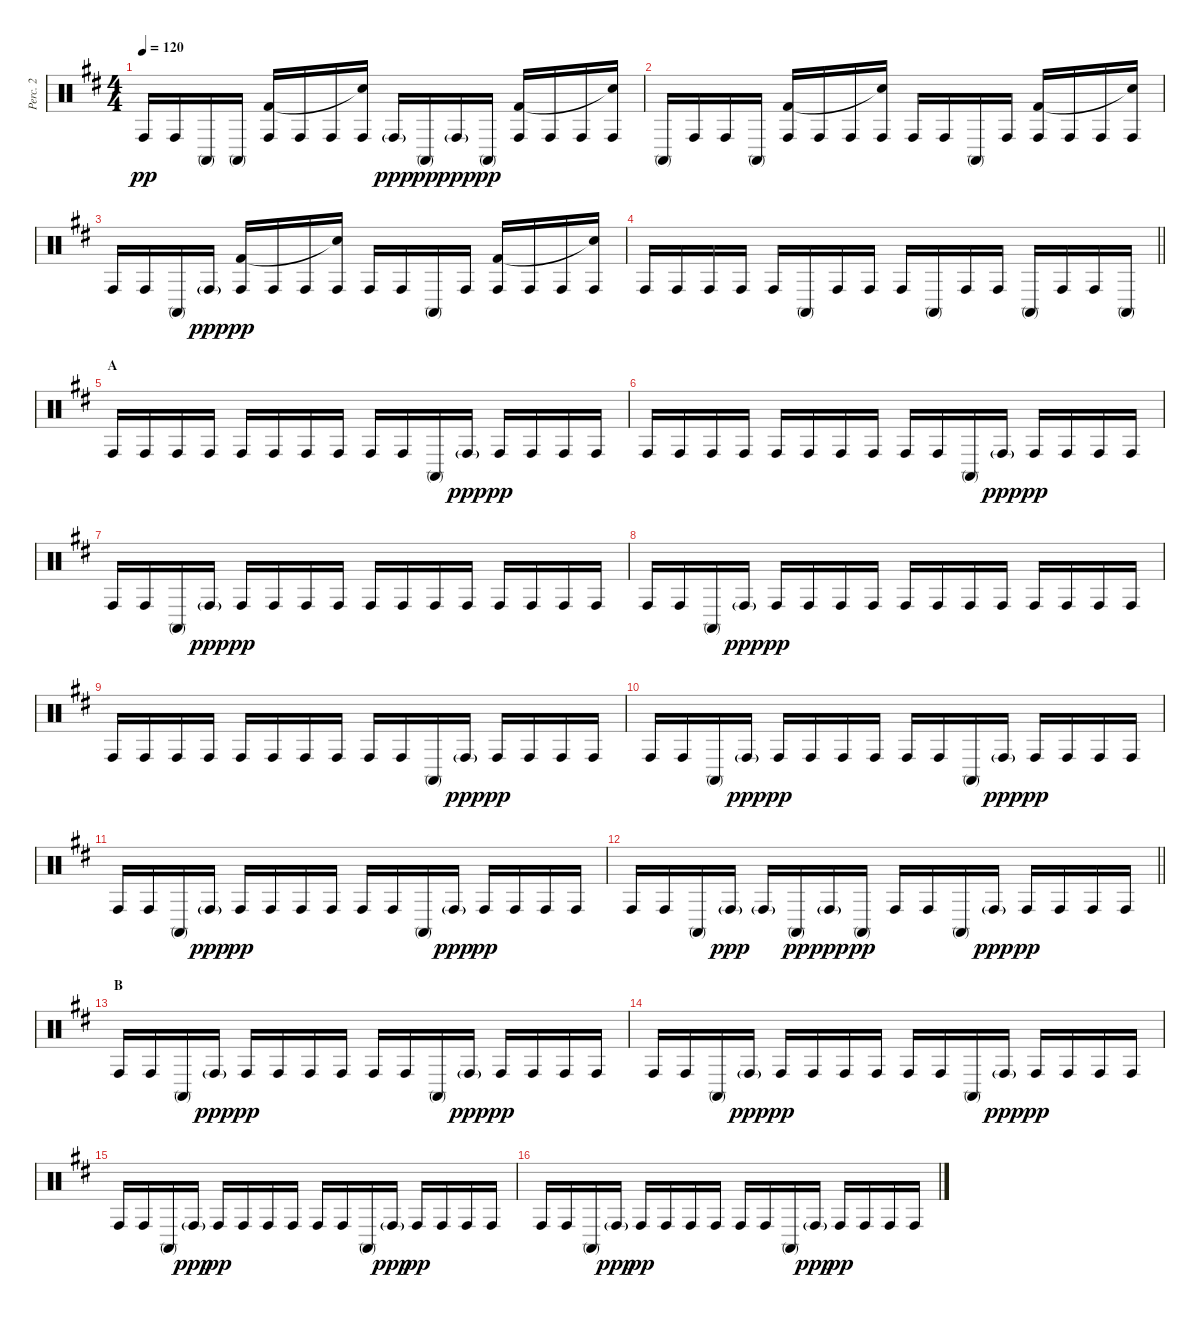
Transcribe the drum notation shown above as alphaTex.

\track ("Perc. 2" "Perc. 2") {instrument percussion}
\staff {score}
\articulation defaults
\ts (4 4)
\tempo 120
\clef neutral
\ks d "Conga high (hit)".16{dy pp} "Conga high (hit)".16 "Conga high (mute)".16 "Conga high (mute)".16
("Conga high (hit)" "Kick (hit) 2").16 "Conga high (hit)".16 "Conga high (hit)".16 ("Conga high (hit)" "Snare (hit)"{t}).16 "Conga high (hit)"{g}.16{dy ppp} "Conga high (mute)".16{dy pp} "Conga high (hit)"{g}.16{dy ppp} "Conga high (mute)".16{dy pp} ("Conga high (hit)" "Kick (hit) 2").16 "Conga high (hit)".16 "Conga high (hit)".16 ("Conga high (hit)" "Snare (hit)"{t}).16 |
"Conga high (mute)".16 "Conga high (hit)".16 "Conga high (hit)".16 "Conga high (mute)".16 ("Conga high (hit)" "Kick (hit) 2").16 "Conga high (hit)".16 "Conga high (hit)".16 ("Conga high (hit)" "Snare (hit)"{t}).16 "Conga high (hit)".16 "Conga high (hit)".16 "Conga high (mute)".16 "Conga high (hit)".16 ("Conga high (hit)" "Kick (hit) 2").16 "Conga high (hit)".16 "Conga high (hit)".16 ("Conga high (hit)" "Snare (hit)"{t}).16 |
"Conga high (hit)".16 "Conga high (hit)".16 "Conga high (mute)".16 "Conga high (hit)"{g}.16{dy ppp} ("Conga high (hit)" "Kick (hit) 2").16{dy pp} "Conga high (hit)".16 "Conga high (hit)".16 ("Conga high (hit)" "Snare (hit)"{t}).16 "Conga high (hit)".16 "Conga high (hit)".16 "Conga high (mute)".16 "Conga high (hit)".16 ("Conga high (hit)" "Kick (hit) 2").16 "Conga high (hit)".16 "Conga high (hit)".16 ("Conga high (hit)" "Snare (hit)"{t}).16 |
\barLineRight lightlight "Conga high (hit)".16 "Conga high (hit)".16 "Conga high (hit)".16 "Conga high (hit)".16 "Conga high (hit)".16 "Conga high (mute)".16 "Conga high (hit)".16 "Conga high (hit)".16 "Conga high (hit)".16 "Conga high (mute)".16 "Conga high (hit)".16 "Conga high (hit)".16 "Conga high (mute)".16 "Conga high (hit)".16 "Conga high (hit)".16 "Conga high (mute)".16
|
\section ("" "A")
"Conga high (hit)".16 "Conga high (hit)".16 "Conga high (hit)".16 "Conga high (hit)".16 "Conga high (hit)".16 "Conga high (hit)".16 "Conga high (hit)".16 "Conga high (hit)".16 "Conga high (hit)".16 "Conga high (hit)".16 "Conga high (mute)".16 "Conga high (hit)"{g}.16{dy ppp} "Conga high (hit)".16{dy pp} "Conga high (hit)".16 "Conga high (hit)".16 "Conga high (hit)".16 |
"Conga high (hit)".16 "Conga high (hit)".16 "Conga high (hit)".16 "Conga high (hit)".16 "Conga high (hit)".16 "Conga high (hit)".16 "Conga high (hit)".16 "Conga high (hit)".16 "Conga high (hit)".16 "Conga high (hit)".16 "Conga high (mute)".16 "Conga high (hit)"{g}.16{dy ppp} "Conga high (hit)".16{dy pp} "Conga high (hit)".16 "Conga high (hit)".16 "Conga high (hit)".16 |
"Conga high (hit)".16 "Conga high (hit)".16 "Conga high (mute)".16 "Conga high (hit)"{g}.16{dy ppp} "Conga high (hit)".16{dy pp} "Conga high (hit)".16 "Conga high (hit)".16 "Conga high (hit)".16 "Conga high (hit)".16 "Conga high (hit)".16 "Conga high (hit)".16 "Conga high (hit)".16 "Conga high (hit)".16 "Conga high (hit)".16 "Conga high (hit)".16 "Conga high (hit)".16 |
"Conga high (hit)".16 "Conga high (hit)".16 "Conga high (mute)".16 "Conga high (hit)"{g}.16{dy ppp} "Conga high (hit)".16{dy pp} "Conga high (hit)".16 "Conga high (hit)".16 "Conga high (hit)".16 "Conga high (hit)".16 "Conga high (hit)".16 "Conga high (hit)".16 "Conga high (hit)".16 "Conga high (hit)".16 "Conga high (hit)".16 "Conga high (hit)".16 "Conga high (hit)".16 |
"Conga high (hit)".16 "Conga high (hit)".16 "Conga high (hit)".16 "Conga high (hit)".16 "Conga high (hit)".16 "Conga high (hit)".16 "Conga high (hit)".16 "Conga high (hit)".16 "Conga high (hit)".16 "Conga high (hit)".16 "Conga high (mute)".16 "Conga high (hit)"{g}.16{dy ppp} "Conga high (hit)".16{dy pp} "Conga high (hit)".16 "Conga high (hit)".16 "Conga high (hit)".16 |
"Conga high (hit)".16 "Conga high (hit)".16 "Conga high (mute)".16 "Conga high (hit)"{g}.16{dy ppp} "Conga high (hit)".16{dy pp} "Conga high (hit)".16 "Conga high (hit)".16 "Conga high (hit)".16 "Conga high (hit)".16 "Conga high (hit)".16 "Conga high (mute)".16 "Conga high (hit)"{g}.16{dy ppp} "Conga high (hit)".16{dy pp} "Conga high (hit)".16 "Conga high (hit)".16 "Conga high (hit)".16 |
"Conga high (hit)".16 "Conga high (hit)".16 "Conga high (mute)".16 "Conga high (hit)"{g}.16{dy ppp} "Conga high (hit)".16{dy pp} "Conga high (hit)".16 "Conga high (hit)".16 "Conga high (hit)".16 "Conga high (hit)".16 "Conga high (hit)".16 "Conga high (mute)".16 "Conga high (hit)"{g}.16{dy ppp} "Conga high (hit)".16{dy pp} "Conga high (hit)".16 "Conga high (hit)".16 "Conga high (hit)".16 |
\barLineRight lightlight "Conga high (hit)".16 "Conga high (hit)".16 "Conga high (mute)".16 "Conga high (hit)"{g}.16{dy ppp} "Conga high (hit)"{g}.16 "Conga high (mute)".16{dy pp} "Conga high (hit)"{g}.16{dy ppp} "Conga high (mute)".16{dy pp} "Conga high (hit)".16 "Conga high (hit)".16 "Conga high (mute)".16 "Conga high (hit)"{g}.16{dy ppp} "Conga high (hit)".16{dy pp} "Conga high (hit)".16 "Conga high (hit)".16 "Conga high (hit)".16
|
\section ("" "B")
"Conga high (hit)".16 "Conga high (hit)".16 "Conga high (mute)".16 "Conga high (hit)"{g}.16{dy ppp} "Conga high (hit)".16{dy pp} "Conga high (hit)".16 "Conga high (hit)".16 "Conga high (hit)".16 "Conga high (hit)".16 "Conga high (hit)".16 "Conga high (mute)".16 "Conga high (hit)"{g}.16{dy ppp} "Conga high (hit)".16{dy pp} "Conga high (hit)".16 "Conga high (hit)".16 "Conga high (hit)".16 |
"Conga high (hit)".16 "Conga high (hit)".16 "Conga high (mute)".16 "Conga high (hit)"{g}.16{dy ppp} "Conga high (hit)".16{dy pp} "Conga high (hit)".16 "Conga high (hit)".16 "Conga high (hit)".16 "Conga high (hit)".16 "Conga high (hit)".16 "Conga high (mute)".16 "Conga high (hit)"{g}.16{dy ppp} "Conga high (hit)".16{dy pp} "Conga high (hit)".16 "Conga high (hit)".16 "Conga high (hit)".16 |
"Conga high (hit)".16 "Conga high (hit)".16 "Conga high (mute)".16 "Conga high (hit)"{g}.16{dy ppp} "Conga high (hit)".16{dy pp} "Conga high (hit)".16 "Conga high (hit)".16 "Conga high (hit)".16 "Conga high (hit)".16 "Conga high (hit)".16 "Conga high (mute)".16 "Conga high (hit)"{g}.16{dy ppp} "Conga high (hit)".16{dy pp} "Conga high (hit)".16 "Conga high (hit)".16 "Conga high (hit)".16 |
"Conga high (hit)".16 "Conga high (hit)".16 "Conga high (mute)".16 "Conga high (hit)"{g}.16{dy ppp} "Conga high (hit)".16{dy pp} "Conga high (hit)".16 "Conga high (hit)".16 "Conga high (hit)".16 "Conga high (hit)".16 "Conga high (hit)".16 "Conga high (mute)".16 "Conga high (hit)"{g}.16{dy ppp} "Conga high (hit)".16{dy pp} "Conga high (hit)".16 "Conga high (hit)".16 "Conga high (hit)".16
